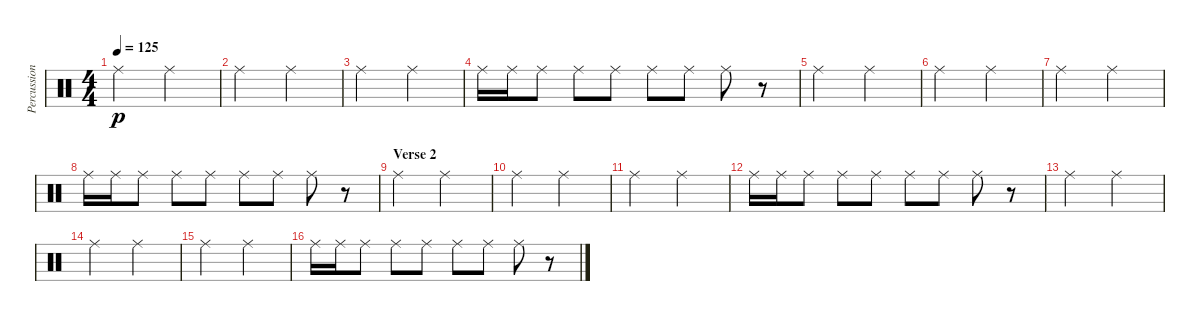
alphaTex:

\track ("Percussion" "Percussion") {instrument percussion}
\staff {score}
\articulation defaults
\ts (4 4)
\tempo 125
\clef neutral
\ks c "Ride (middle)".2{dy p} "Ride (middle)".2
|
"Ride (middle)".2 "Ride (middle)".2 |
"Ride (middle)".2 "Ride (middle)".2 |
"Ride (middle)".16 "Ride (middle)".16 "Ride (middle)".8 "Ride (middle)".8 "Ride (middle)".8 "Ride (middle)".8 "Ride (middle)".8 "Ride (middle)".8 r.8 |
"Ride (middle)".2 "Ride (middle)".2 |
"Ride (middle)".2 "Ride (middle)".2 |
"Ride (middle)".2 "Ride (middle)".2 |
"Ride (middle)".16 "Ride (middle)".16 "Ride (middle)".8 "Ride (middle)".8 "Ride (middle)".8 "Ride (middle)".8 "Ride (middle)".8 "Ride (middle)".8 r.8 |
\section ("" "Verse 2")
"Ride (middle)".2 "Ride (middle)".2 |
"Ride (middle)".2 "Ride (middle)".2 |
"Ride (middle)".2 "Ride (middle)".2 |
"Ride (middle)".16 "Ride (middle)".16 "Ride (middle)".8 "Ride (middle)".8 "Ride (middle)".8 "Ride (middle)".8 "Ride (middle)".8 "Ride (middle)".8 r.8 |
"Ride (middle)".2 "Ride (middle)".2 |
"Ride (middle)".2 "Ride (middle)".2 |
"Ride (middle)".2 "Ride (middle)".2 |
"Ride (middle)".16 "Ride (middle)".16 "Ride (middle)".8 "Ride (middle)".8 "Ride (middle)".8 "Ride (middle)".8 "Ride (middle)".8 "Ride (middle)".8 r.8
